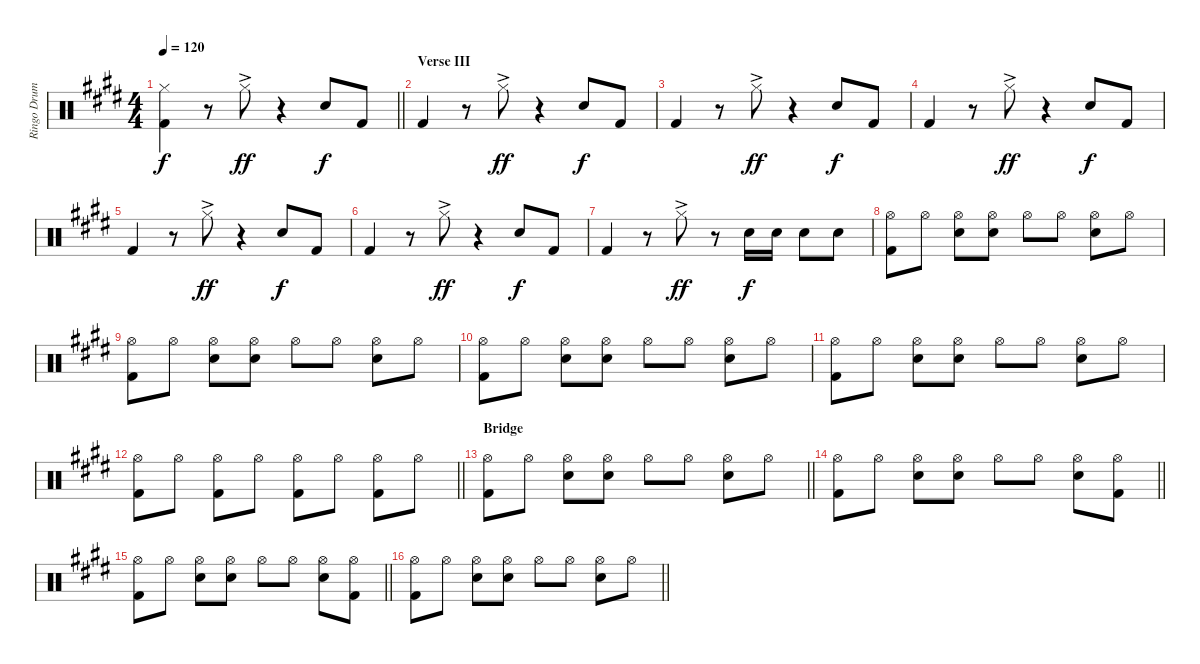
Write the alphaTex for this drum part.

\track ("Ringo Drums" "Ringo Drum") {instrument percussion}
\staff {score}
\articulation defaults
\ts (4 4)
\tempo 120
\clef neutral
\barLineRight lightlight
\ks e
("Hi-Hat (closed)" "Kick (hit) 2").4{dy f} r.8 "Hi-Hat (closed)"{ac}.8{dy ff} r.4 "Snare (hit) 2".8{dy f} "Kick (hit) 2".8 |
\section ("" "Verse III")
"Kick (hit) 2".4 r.8 "Hi-Hat (closed)"{ac}.8{dy ff} r.4 "Snare (hit) 2".8{dy f} "Kick (hit) 2".8 |
"Kick (hit) 2".4 r.8 "Hi-Hat (closed)"{ac}.8{dy ff} r.4 "Snare (hit) 2".8{dy f} "Kick (hit) 2".8 |
"Kick (hit) 2".4 r.8 "Hi-Hat (closed)"{ac}.8{dy ff} r.4 "Snare (hit) 2".8{dy f} "Kick (hit) 2".8 |
"Kick (hit) 2".4 r.8 "Hi-Hat (closed)"{ac}.8{dy ff} r.4 "Snare (hit) 2".8{dy f} "Kick (hit) 2".8 |
"Kick (hit) 2".4 r.8 "Hi-Hat (closed)"{ac}.8{dy ff} r.4 "Snare (hit) 2".8{dy f} "Kick (hit) 2".8 |
"Kick (hit) 2".4 r.8 "Hi-Hat (closed)"{ac}.8{dy ff} r.8 "Snare (hit) 2".16{dy f} "Electric Snare (hit)".16 "Snare (hit) 2".8 "Electric Snare (hit)".8 |
("Hi-Hat (open)" "Kick (hit) 2").8 "Hi-Hat (open)".8 ("Hi-Hat (open)" "Snare (hit) 2").8 ("Hi-Hat (open)" "Snare (hit) 2").8 "Hi-Hat (open)".8 "Hi-Hat (open)".8 ("Hi-Hat (open)" "Snare (hit) 2").8 "Hi-Hat (open)".8 |
("Hi-Hat (open)" "Kick (hit) 2").8 "Hi-Hat (open)".8 ("Hi-Hat (open)" "Snare (hit) 2").8 ("Hi-Hat (open)" "Snare (hit) 2").8 "Hi-Hat (open)".8 "Hi-Hat (open)".8 ("Hi-Hat (open)" "Snare (hit) 2").8 "Hi-Hat (open)".8 |
("Hi-Hat (open)" "Kick (hit) 2").8 "Hi-Hat (open)".8 ("Hi-Hat (open)" "Snare (hit) 2").8 ("Hi-Hat (open)" "Snare (hit) 2").8 "Hi-Hat (open)".8 "Hi-Hat (open)".8 ("Hi-Hat (open)" "Snare (hit) 2").8 "Hi-Hat (open)".8 |
("Hi-Hat (open)" "Kick (hit) 2").8 "Hi-Hat (open)".8 ("Hi-Hat (open)" "Snare (hit) 2").8 ("Hi-Hat (open)" "Snare (hit) 2").8 "Hi-Hat (open)".8 "Hi-Hat (open)".8 ("Hi-Hat (open)" "Snare (hit) 2").8 "Hi-Hat (open)".8 |
\barLineRight lightlight
("Hi-Hat (open)" "Kick (hit) 2").8 "Hi-Hat (open)".8 ("Hi-Hat (open)" "Kick (hit) 2").8 "Hi-Hat (open)".8 ("Hi-Hat (open)" "Kick (hit) 2").8 "Hi-Hat (open)".8 ("Hi-Hat (open)" "Kick (hit) 2").8 "Hi-Hat (open)".8 |
\section ("" "Bridge")
\barLineRight lightlight
("Hi-Hat (open)" "Kick (hit) 2").8 "Hi-Hat (open)".8 ("Hi-Hat (open)" "Snare (hit) 2").8 ("Hi-Hat (open)" "Snare (hit) 2").8 "Hi-Hat (open)".8 "Hi-Hat (open)".8 ("Hi-Hat (open)" "Snare (hit) 2").8 "Hi-Hat (open)".8 |
\barLineRight lightlight
("Hi-Hat (open)" "Kick (hit) 2").8 "Hi-Hat (open)".8 ("Hi-Hat (open)" "Snare (hit) 2").8 ("Hi-Hat (open)" "Snare (hit) 2").8 "Hi-Hat (open)".8 "Hi-Hat (open)".8 ("Hi-Hat (open)" "Snare (hit) 2").8 ("Hi-Hat (open)" "Kick (hit) 2").8 |
\barLineRight lightlight
("Hi-Hat (open)" "Kick (hit) 2").8 "Hi-Hat (open)".8 ("Hi-Hat (open)" "Snare (hit) 2").8 ("Hi-Hat (open)" "Snare (hit) 2").8 "Hi-Hat (open)".8 "Hi-Hat (open)".8 ("Hi-Hat (open)" "Snare (hit) 2").8 ("Hi-Hat (open)" "Kick (hit) 2").8 |
\barLineRight lightlight
("Hi-Hat (open)" "Kick (hit) 2").8 "Hi-Hat (open)".8 ("Hi-Hat (open)" "Snare (hit) 2").8 ("Hi-Hat (open)" "Snare (hit) 2").8 "Hi-Hat (open)".8 "Hi-Hat (open)".8 ("Hi-Hat (open)" "Snare (hit) 2").8 "Hi-Hat (open)".8
